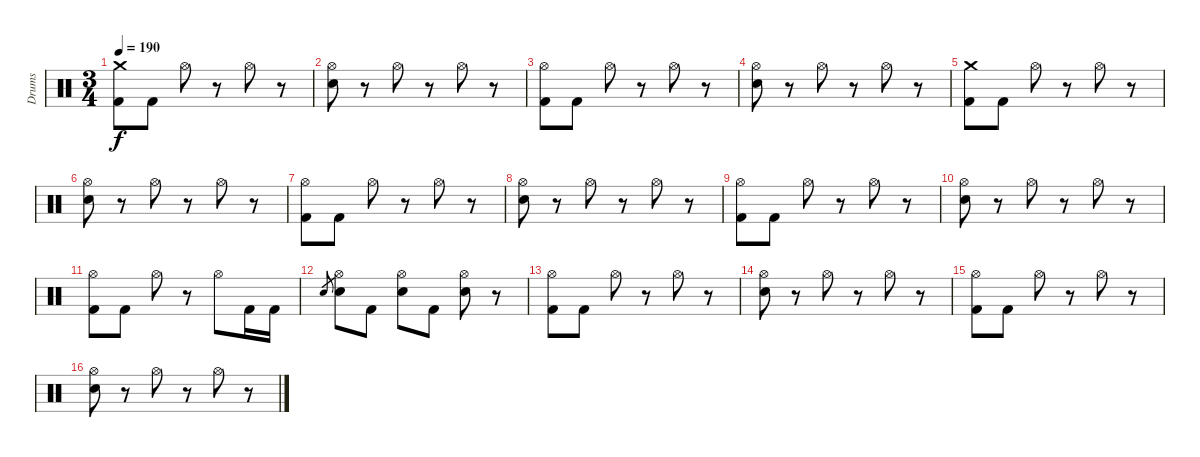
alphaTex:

\track ("Drums" "Drums") {instrument percussion}
\staff {score}
\articulation defaults
\ts (3 4)
\tempo 190
\clef neutral
\ks c
("Crash medium (hit)" "Kick (hit) 2").8{dy f} "Kick (hit) 2".8 "Hi-Hat (open)".8 r.8 "Hi-Hat (open)".8 r.8 |
("Hi-Hat (open)" "Snare (hit) 2").8 r.8 "Hi-Hat (open)".8 r.8 "Hi-Hat (open)".8 r.8 |
("Hi-Hat (open)" "Kick (hit) 2").8 "Kick (hit) 2".8 "Hi-Hat (open)".8 r.8 "Hi-Hat (open)".8 r.8 |
("Hi-Hat (open)" "Snare (hit) 2").8 r.8 "Hi-Hat (open)".8 r.8 "Hi-Hat (open)".8 r.8 |
("Crash medium (hit)" "Kick (hit) 2").8 "Kick (hit) 2".8 "Hi-Hat (open)".8 r.8 "Hi-Hat (open)".8 r.8 |
("Hi-Hat (open)" "Snare (hit) 2").8 r.8 "Hi-Hat (open)".8 r.8 "Hi-Hat (open)".8 r.8 |
("Hi-Hat (open)" "Kick (hit) 2").8 "Kick (hit) 2".8 "Hi-Hat (open)".8 r.8 "Hi-Hat (open)".8 r.8 |
("Hi-Hat (open)" "Snare (hit) 2").8 r.8 "Hi-Hat (open)".8 r.8 "Hi-Hat (open)".8 r.8 |
("Hi-Hat (open)" "Kick (hit) 2").8 "Kick (hit) 2".8 "Hi-Hat (open)".8 r.8 "Hi-Hat (open)".8 r.8 |
("Hi-Hat (open)" "Snare (hit) 2").8 r.8 "Hi-Hat (open)".8 r.8 "Hi-Hat (open)".8 r.8 |
("Hi-Hat (open)" "Kick (hit) 2").8 "Kick (hit) 2".8 "Hi-Hat (open)".8 r.8 "Hi-Hat (open)".8 "Kick (hit) 2".16 "Kick (hit) 2".16 |
"Snare (hit) 2".8{gr} ("Hi-Hat (open)" "Snare (hit) 2").8 "Kick (hit) 2".8 ("Hi-Hat (open)" "Snare (hit) 2").8 "Kick (hit) 2".8 ("Hi-Hat (open)" "Snare (hit) 2").8 r.8 |
("Hi-Hat (open)" "Kick (hit) 2").8 "Kick (hit) 2".8 "Hi-Hat (open)".8 r.8 "Hi-Hat (open)".8 r.8 |
("Hi-Hat (open)" "Snare (hit) 2").8 r.8 "Hi-Hat (open)".8 r.8 "Hi-Hat (open)".8 r.8 |
("Hi-Hat (open)" "Kick (hit) 2").8 "Kick (hit) 2".8 "Hi-Hat (open)".8 r.8 "Hi-Hat (open)".8 r.8 |
("Hi-Hat (open)" "Snare (hit) 2").8 r.8 "Hi-Hat (open)".8 r.8 "Hi-Hat (open)".8 r.8
